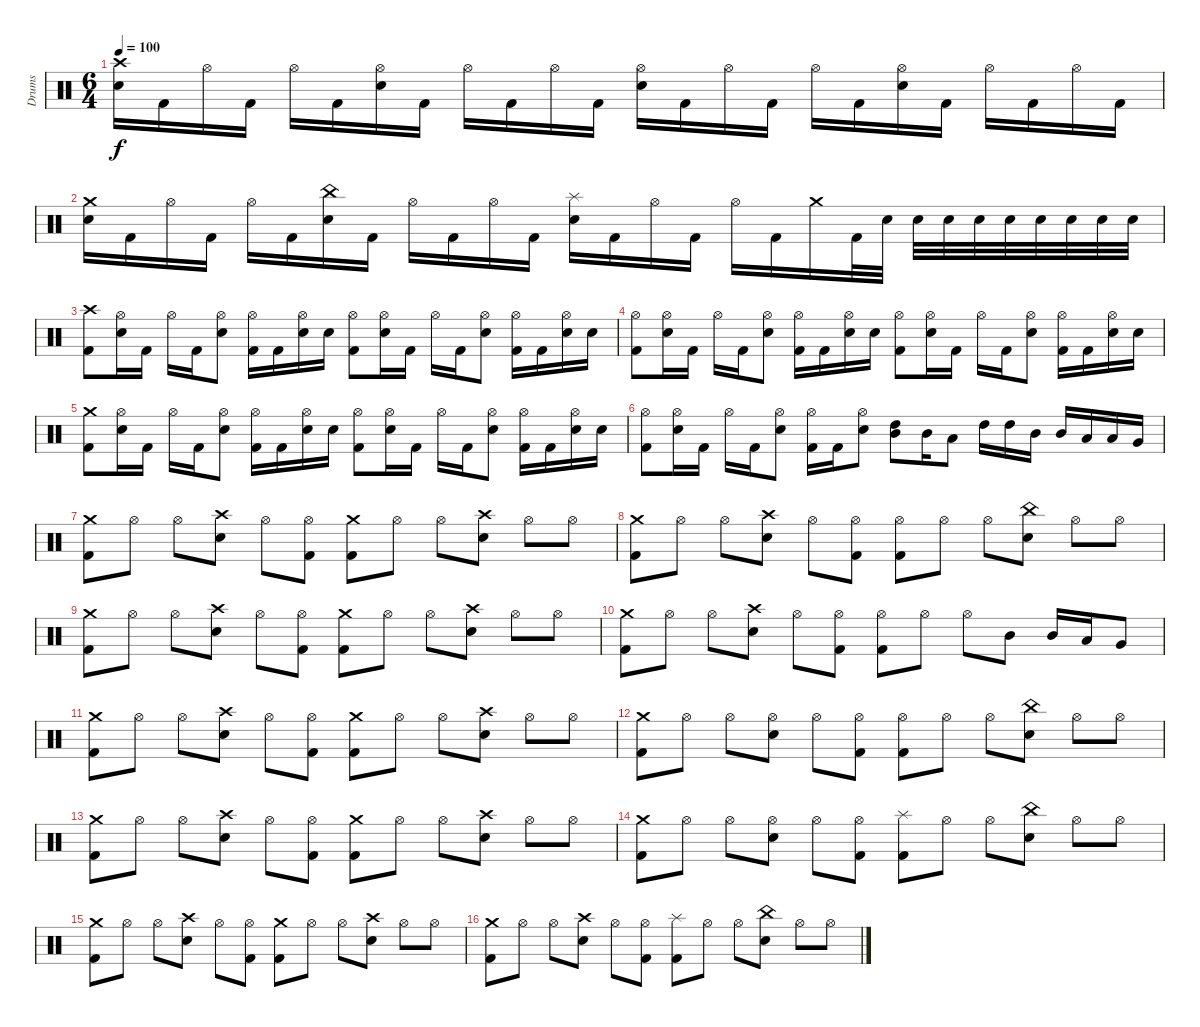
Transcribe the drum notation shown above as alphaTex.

\track ("Drums" "Drums") {instrument percussion}
\staff {score}
\articulation defaults
\ts (6 4)
\tempo 100
\clef neutral
\ks c
("Crash high (hit)" "Electric Snare (hit)").16{dy f} "Kick (hit) 2".16 "Hi-Hat (open)".16 "Kick (hit) 2".16 "Hi-Hat (open)".16 "Kick (hit) 2".16 ("Hi-Hat (open)" "Electric Snare (hit)").16 "Kick (hit) 2".16 "Hi-Hat (open)".16 "Kick (hit) 2".16 "Hi-Hat (open)".16 "Kick (hit) 2".16 ("Hi-Hat (open)" "Electric Snare (hit)").16 "Kick (hit) 2".16 "Hi-Hat (open)".16 "Kick (hit) 2".16 "Hi-Hat (open)".16 "Kick (hit) 2".16 ("Hi-Hat (open)" "Electric Snare (hit)").16 "Kick (hit) 2".16 "Hi-Hat (open)".16 "Kick (hit) 2".16 "Hi-Hat (open)".16 "Kick (hit) 2".16 |
("Crash medium (hit)" "Electric Snare (hit)").16 "Kick (hit) 2".16 "Hi-Hat (open)".16 "Kick (hit) 2".16 "Hi-Hat (open)".16 "Kick (hit) 2".16 ("China (hit)" "Electric Snare (hit)").16 "Kick (hit) 2".16 "Hi-Hat (open)".16 "Kick (hit) 2".16 "Hi-Hat (open)".16 "Kick (hit) 2".16 ("Splash (hit)" "Electric Snare (hit)").16 "Kick (hit) 2".16 "Hi-Hat (open)".16 "Kick (hit) 2".16 "Hi-Hat (open)".16 "Kick (hit) 2".16 "Crash medium (hit)".16 "Kick (hit) 2".32 "Electric Snare (hit)".32 "Electric Snare (hit)".32 "Electric Snare (hit)".32 "Electric Snare (hit)".32 "Electric Snare (hit)".32 "Electric Snare (hit)".32 "Electric Snare (hit)".32 "Electric Snare (hit)".32 "Electric Snare (hit)".32 |
("Crash high (hit)" "Kick (hit) 2").8 ("Hi-Hat (open)" "Electric Snare (hit)").16 "Kick (hit) 2".16 "Hi-Hat (open)".16 "Kick (hit) 2".16 ("Hi-Hat (open)" "Electric Snare (hit)").8 ("Hi-Hat (open)" "Kick (hit) 2").16 "Kick (hit) 2".16 ("Hi-Hat (open)" "Electric Snare (hit)").16 "Electric Snare (hit)".16 ("Hi-Hat (open)" "Kick (hit) 2").8 ("Hi-Hat (open)" "Electric Snare (hit)").16 "Kick (hit) 2".16 "Hi-Hat (open)".16 "Kick (hit) 2".16 ("Hi-Hat (open)" "Electric Snare (hit)").8 ("Hi-Hat (open)" "Kick (hit) 2").16 "Kick (hit) 2".16 ("Hi-Hat (open)" "Electric Snare (hit)").16 "Electric Snare (hit)".16 |
("Hi-Hat (open)" "Kick (hit) 2").8 ("Hi-Hat (open)" "Electric Snare (hit)").16 "Kick (hit) 2".16 "Hi-Hat (open)".16 "Kick (hit) 2".16 ("Hi-Hat (open)" "Electric Snare (hit)").8 ("Hi-Hat (open)" "Kick (hit) 2").16 "Kick (hit) 2".16 ("Hi-Hat (open)" "Electric Snare (hit)").16 "Electric Snare (hit)".16 ("Hi-Hat (open)" "Kick (hit) 2").8 ("Hi-Hat (open)" "Electric Snare (hit)").16 "Kick (hit) 2".16 "Hi-Hat (open)".16 "Kick (hit) 2".16 ("Hi-Hat (open)" "Electric Snare (hit)").8 ("Hi-Hat (open)" "Kick (hit) 2").16 "Kick (hit) 2".16 ("Hi-Hat (open)" "Electric Snare (hit)").16 "Electric Snare (hit)".16 |
("Crash medium (hit)" "Kick (hit) 2").8 ("Hi-Hat (open)" "Electric Snare (hit)").16 "Kick (hit) 2".16 "Hi-Hat (open)".16 "Kick (hit) 2".16 ("Hi-Hat (open)" "Electric Snare (hit)").8 ("Hi-Hat (open)" "Kick (hit) 2").16 "Kick (hit) 2".16 ("Hi-Hat (open)" "Electric Snare (hit)").16 "Electric Snare (hit)".16 ("Hi-Hat (open)" "Kick (hit) 2").8 ("Hi-Hat (open)" "Electric Snare (hit)").16 "Kick (hit) 2".16 "Hi-Hat (open)".16 "Kick (hit) 2".16 ("Hi-Hat (open)" "Electric Snare (hit)").8 ("Hi-Hat (open)" "Kick (hit) 2").16 "Kick (hit) 2".16 ("Hi-Hat (open)" "Electric Snare (hit)").16 "Electric Snare (hit)".16 |
("Hi-Hat (open)" "Kick (hit) 2").8 ("Hi-Hat (open)" "Electric Snare (hit)").16 "Kick (hit) 2".16 "Hi-Hat (open)".16 "Kick (hit) 2".16 ("Hi-Hat (open)" "Electric Snare (hit)").8 ("Hi-Hat (open)" "Kick (hit) 2").16 "Kick (hit) 2".16 ("Hi-Hat (open)" "Electric Snare (hit)").8 ("High Tom (hit)" "Mid Tom (hit)").8 "Mid Tom (hit)".16 "Low Tom (hit)".8 "High Tom (hit)".16 "High Tom (hit)".16 "Mid Tom (hit)".16 "Mid Tom (hit)".16 "Low Tom (hit)".16 "Low Tom (hit)".16 "Very Low Tom (hit)".16 |
("Crash medium (hit)" "Kick (hit) 2").8 "Hi-Hat (open)".8 "Hi-Hat (open)".8 ("Crash high (hit)" "Electric Snare (hit)").8 "Hi-Hat (open)".8 ("Hi-Hat (open)" "Kick (hit) 2").8 ("Crash medium (hit)" "Kick (hit) 2").8 "Hi-Hat (open)".8 "Hi-Hat (open)".8 ("Crash high (hit)" "Electric Snare (hit)").8 "Hi-Hat (open)".8 "Hi-Hat (open)".8 |
("Crash medium (hit)" "Kick (hit) 2").8 "Hi-Hat (open)".8 "Hi-Hat (open)".8 ("Crash high (hit)" "Electric Snare (hit)").8 "Hi-Hat (open)".8 ("Hi-Hat (open)" "Kick (hit) 2").8 ("Hi-Hat (open)" "Kick (hit) 2").8 "Hi-Hat (open)".8 "Hi-Hat (open)".8 ("China (hit)" "Electric Snare (hit)").8 "Hi-Hat (open)".8 "Hi-Hat (open)".8 |
("Crash medium (hit)" "Kick (hit) 2").8 "Hi-Hat (open)".8 "Hi-Hat (open)".8 ("Crash high (hit)" "Electric Snare (hit)").8 "Hi-Hat (open)".8 ("Hi-Hat (open)" "Kick (hit) 2").8 ("Crash medium (hit)" "Kick (hit) 2").8 "Hi-Hat (open)".8 "Hi-Hat (open)".8 ("Crash high (hit)" "Electric Snare (hit)").8 "Hi-Hat (open)".8 "Hi-Hat (open)".8 |
("Crash medium (hit)" "Kick (hit) 2").8 "Hi-Hat (open)".8 "Hi-Hat (open)".8 ("Crash high (hit)" "Electric Snare (hit)").8 "Hi-Hat (open)".8 ("Hi-Hat (open)" "Kick (hit) 2").8 ("Hi-Hat (open)" "Kick (hit) 2").8 "Hi-Hat (open)".8 "Hi-Hat (open)".8 "Mid Tom (hit)".8 "Mid Tom (hit)".16 "Low Tom (hit)".16 "Very Low Tom (hit)".8 |
("Crash medium (hit)" "Kick (hit) 2").8 "Hi-Hat (open)".8 "Hi-Hat (open)".8 ("Crash high (hit)" "Electric Snare (hit)").8 "Hi-Hat (open)".8 ("Hi-Hat (open)" "Kick (hit) 2").8 ("Crash medium (hit)" "Kick (hit) 2").8 "Hi-Hat (open)".8 "Hi-Hat (open)".8 ("Crash high (hit)" "Electric Snare (hit)").8 "Hi-Hat (open)".8 "Hi-Hat (open)".8 |
("Crash medium (hit)" "Kick (hit) 2").8 "Hi-Hat (open)".8 "Hi-Hat (open)".8 ("Hi-Hat (open)" "Electric Snare (hit)").8 "Hi-Hat (open)".8 ("Hi-Hat (open)" "Kick (hit) 2").8 ("Hi-Hat (open)" "Kick (hit) 2").8 "Hi-Hat (open)".8 "Hi-Hat (open)".8 ("China (hit)" "Electric Snare (hit)").8 "Hi-Hat (open)".8 "Hi-Hat (open)".8 |
("Crash medium (hit)" "Kick (hit) 2").8 "Hi-Hat (open)".8 "Hi-Hat (open)".8 ("Crash high (hit)" "Electric Snare (hit)").8 "Hi-Hat (open)".8 ("Hi-Hat (open)" "Kick (hit) 2").8 ("Crash medium (hit)" "Kick (hit) 2").8 "Hi-Hat (open)".8 "Hi-Hat (open)".8 ("Crash high (hit)" "Electric Snare (hit)").8 "Hi-Hat (open)".8 "Hi-Hat (open)".8 |
("Crash medium (hit)" "Kick (hit) 2").8 "Hi-Hat (open)".8 "Hi-Hat (open)".8 ("Hi-Hat (open)" "Electric Snare (hit)").8 "Hi-Hat (open)".8 ("Hi-Hat (open)" "Kick (hit) 2").8 ("Splash (hit)" "Kick (hit) 2").8 "Hi-Hat (open)".8 "Hi-Hat (open)".8 ("China (hit)" "Electric Snare (hit)").8 "Hi-Hat (open)".8 "Hi-Hat (open)".8 |
("Crash medium (hit)" "Kick (hit) 2").8 "Hi-Hat (open)".8 "Hi-Hat (open)".8 ("Crash high (hit)" "Electric Snare (hit)").8 "Hi-Hat (open)".8 ("Hi-Hat (open)" "Kick (hit) 2").8 ("Crash medium (hit)" "Kick (hit) 2").8 "Hi-Hat (open)".8 "Hi-Hat (open)".8 ("Crash high (hit)" "Electric Snare (hit)").8 "Hi-Hat (open)".8 "Hi-Hat (open)".8 |
("Crash medium (hit)" "Kick (hit) 2").8 "Hi-Hat (open)".8 "Hi-Hat (open)".8 ("Crash high (hit)" "Electric Snare (hit)").8 "Hi-Hat (open)".8 ("Hi-Hat (open)" "Kick (hit) 2").8 ("Splash (hit)" "Kick (hit) 2").8 "Hi-Hat (open)".8 "Hi-Hat (open)".8 ("China (hit)" "Electric Snare (hit)").8 "Hi-Hat (open)".8 "Hi-Hat (open)".8
